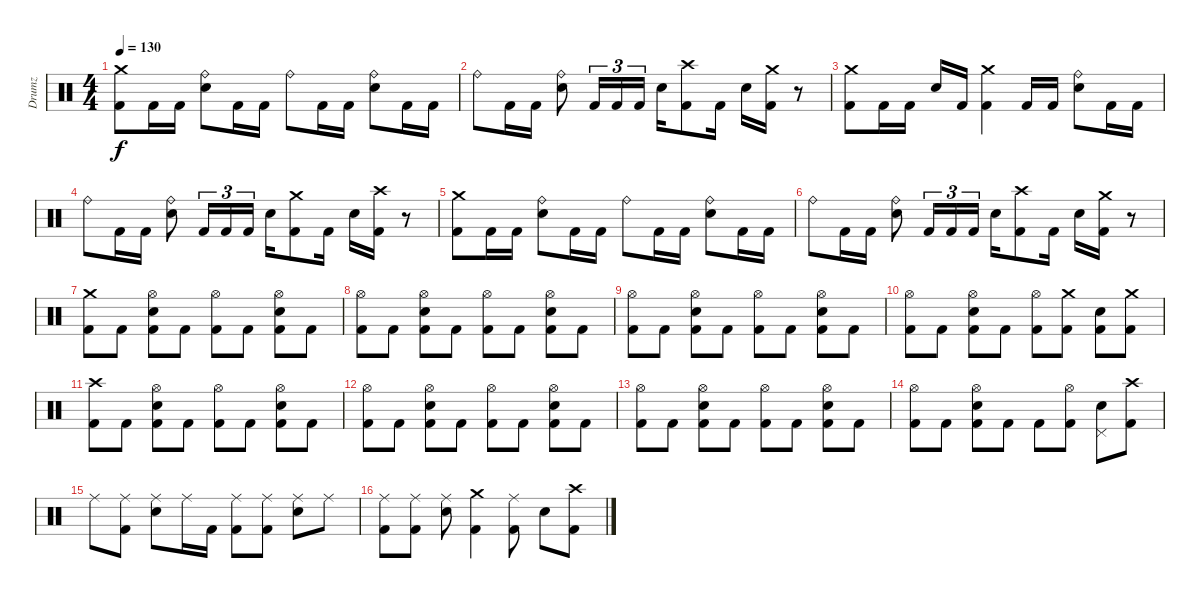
\track ("Drumz" "Drumz") {instrument percussion}
\staff {score}
\articulation defaults
\ts (4 4)
\tempo 130
\clef neutral
\ks c
("Kick (hit) 2" "Crash medium (hit)").8{dy f} "Kick (hit) 2".16 "Kick (hit) 2".16 ("Snare (hit) 2" "Ride (bell)").8 "Kick (hit) 2".16 "Kick (hit) 2".16 "Ride (bell)".8 "Kick (hit) 2".16 "Kick (hit) 2".16 ("Snare (hit) 2" "Ride (bell)").8 "Kick (hit) 2".16 "Kick (hit) 2".16 |
"Ride (bell)".8 "Kick (hit) 2".16 "Kick (hit) 2".16 ("Snare (hit) 2" "Ride (bell)").8 "Kick (hit) 2".16{tu (3 2)} "Kick (hit) 2".16{tu (3 2)} "Kick (hit) 2".16{tu (3 2)} "Snare (hit) 2".16 ("Kick (hit) 2" "Crash high (hit)").8 "Kick (hit) 2".16 "Snare (hit) 2".16 ("Kick (hit) 2" "Crash medium (hit)").16 r.8 |
("Kick (hit) 2" "Crash medium (hit)").8 "Kick (hit) 2".16 "Kick (hit) 2".16 "Snare (hit) 2".16 "Kick (hit) 2".16 ("Kick (hit) 2" "Crash medium (hit)").4 "Kick (hit) 2".16 "Kick (hit) 2".16 ("Snare (hit) 2" "Ride (bell)").8 "Kick (hit) 2".16 "Kick (hit) 2".16 |
"Ride (bell)".8 "Kick (hit) 2".16 "Kick (hit) 2".16 ("Snare (hit) 2" "Ride (bell)").8 "Kick (hit) 2".16{tu (3 2)} "Kick (hit) 2".16{tu (3 2)} "Kick (hit) 2".16{tu (3 2)} "Snare (hit) 2".16 ("Kick (hit) 2" "Crash medium (hit)").8 "Kick (hit) 2".16 "Snare (hit) 2".16 ("Kick (hit) 2" "Crash high (hit)").16 r.8 |
("Kick (hit) 2" "Crash medium (hit)").8 "Kick (hit) 2".16 "Kick (hit) 2".16 ("Snare (hit) 2" "Ride (bell)").8 "Kick (hit) 2".16 "Kick (hit) 2".16 "Ride (bell)".8 "Kick (hit) 2".16 "Kick (hit) 2".16 ("Snare (hit) 2" "Ride (bell)").8 "Kick (hit) 2".16 "Kick (hit) 2".16 |
"Ride (bell)".8 "Kick (hit) 2".16 "Kick (hit) 2".16 ("Snare (hit) 2" "Ride (bell)").8 "Kick (hit) 2".16{tu (3 2)} "Kick (hit) 2".16{tu (3 2)} "Kick (hit) 2".16{tu (3 2)} "Snare (hit) 2".16 ("Kick (hit) 2" "Crash high (hit)").8 "Kick (hit) 2".16 "Snare (hit) 2".16 ("Kick (hit) 2" "Crash medium (hit)").16 r.8 |
("Kick (hit) 2" "Crash medium (hit)").8 "Kick (hit) 2".8 ("Kick (hit) 2" "Snare (hit) 2" "Hi-Hat (open)").8 "Kick (hit) 2".8 ("Kick (hit) 2" "Hi-Hat (open)").8 "Kick (hit) 2".8 ("Kick (hit) 2" "Snare (hit) 2" "Hi-Hat (open)").8 "Kick (hit) 2".8 |
("Kick (hit) 2" "Hi-Hat (open)").8 "Kick (hit) 2".8 ("Kick (hit) 2" "Snare (hit) 2" "Hi-Hat (open)").8 "Kick (hit) 2".8 ("Kick (hit) 2" "Hi-Hat (open)").8 "Kick (hit) 2".8 ("Kick (hit) 2" "Snare (hit) 2" "Hi-Hat (open)").8 "Kick (hit) 2".8 |
("Kick (hit) 2" "Hi-Hat (open)").8 "Kick (hit) 2".8 ("Kick (hit) 2" "Snare (hit) 2" "Hi-Hat (open)").8 "Kick (hit) 2".8 ("Kick (hit) 2" "Hi-Hat (open)").8 "Kick (hit) 2".8 ("Kick (hit) 2" "Snare (hit) 2" "Hi-Hat (open)").8 "Kick (hit) 2".8 |
("Kick (hit) 2" "Hi-Hat (open)").8 "Kick (hit) 2".8 ("Kick (hit) 2" "Snare (hit) 2" "Hi-Hat (open)").8 "Kick (hit) 2".8 ("Kick (hit) 2" "Hi-Hat (open)").8 ("Kick (hit) 2" "Crash medium (hit)").8 ("Kick (hit) 2" "Snare (hit) 2").8 ("Kick (hit) 2" "Crash medium (hit)").8 |
("Kick (hit) 2" "Crash high (hit)").8 "Kick (hit) 2".8 ("Kick (hit) 2" "Snare (hit) 2" "Hi-Hat (open)").8 "Kick (hit) 2".8 ("Kick (hit) 2" "Hi-Hat (open)").8 "Kick (hit) 2".8 ("Kick (hit) 2" "Snare (hit) 2" "Hi-Hat (open)").8 "Kick (hit) 2".8 |
("Kick (hit) 2" "Hi-Hat (open)").8 "Kick (hit) 2".8 ("Kick (hit) 2" "Snare (hit) 2" "Hi-Hat (open)").8 "Kick (hit) 2".8 ("Kick (hit) 2" "Hi-Hat (open)").8 "Kick (hit) 2".8 ("Kick (hit) 2" "Snare (hit) 2" "Hi-Hat (open)").8 "Kick (hit) 2".8 |
("Kick (hit) 2" "Hi-Hat (open)").8 "Kick (hit) 2".8 ("Kick (hit) 2" "Snare (hit) 2" "Hi-Hat (open)").8 "Kick (hit) 2".8 ("Kick (hit) 2" "Hi-Hat (open)").8 "Kick (hit) 2".8 ("Kick (hit) 2" "Snare (hit) 2" "Hi-Hat (open)").8 "Kick (hit) 2".8 |
("Kick (hit) 2" "Hi-Hat (open)").8 "Kick (hit) 2".8 ("Kick (hit) 2" "Snare (hit) 2" "Hi-Hat (open)").8 "Kick (hit) 2".8 "Kick (hit) 2".8 ("Kick (hit) 2" "Hi-Hat (open)").8 ("Snare (hit) 2" "Pedal Hi-Hat (hit)").8 ("Kick (hit) 2" "Crash high (hit)").8 |
"Ride (middle)".8 ("Kick (hit) 2" "Ride (middle)").8 ("Snare (hit) 2" "Ride (middle)").8 "Ride (middle)".16 "Kick (hit) 2".16 ("Kick (hit) 2" "Ride (middle)").8 ("Kick (hit) 2" "Ride (middle)").8 ("Snare (hit) 2" "Ride (middle)").8 "Ride (middle)".8 |
("Kick (hit) 2" "Ride (middle)").8 ("Kick (hit) 2" "Ride (middle)").8 ("Snare (hit) 2" "Ride (middle)").8 ("Kick (hit) 2" "Crash medium (hit)").4 ("Kick (hit) 2" "Ride (middle)").8 "Snare (hit) 2".8 ("Kick (hit) 2" "Crash high (hit)").8
